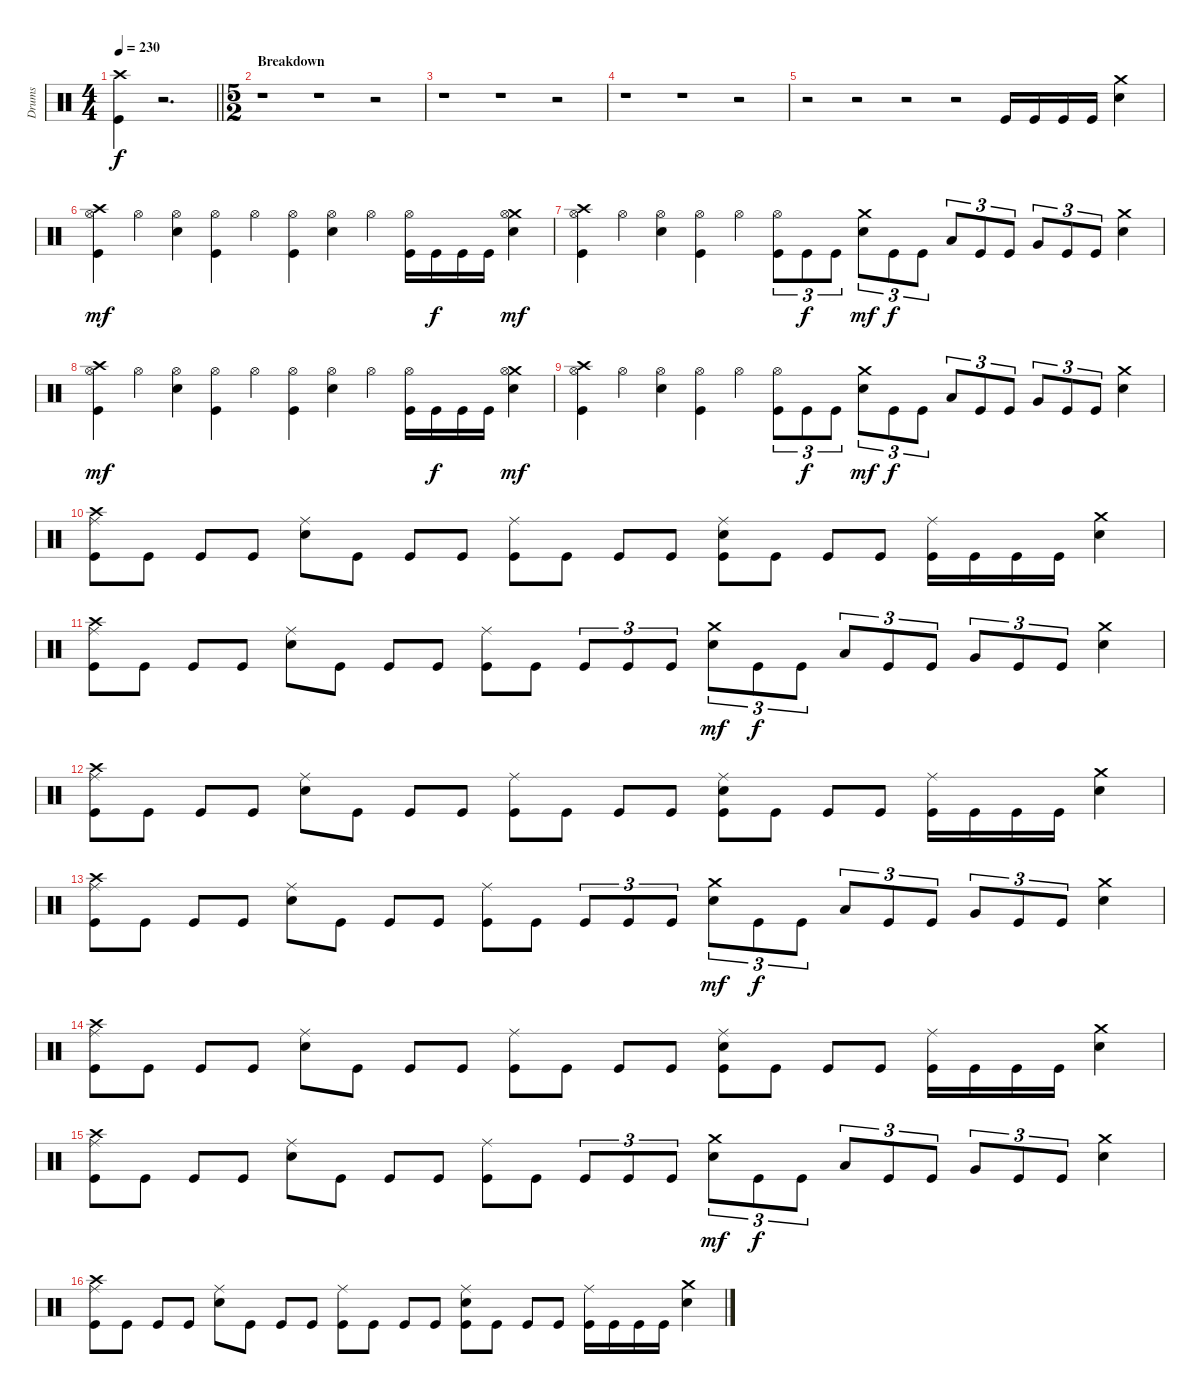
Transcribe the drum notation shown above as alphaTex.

\track ("Drums" "Drums") {instrument percussion}
\staff {score}
\articulation defaults
\ts (4 4)
\tempo 230
\clef neutral
\barLineRight lightlight
\ks c
("Crash high (hit)" "Kick (hit)").4{dy f} r.2{d} |
\ts (5 2)
\section ("" "Breakdown")
r.1 r.1 r.2 |
r.1 r.1 r.2 |
r.1 r.1 r.2 |
r.2 r.2 r.2 r.2 "Kick (hit)".16 "Kick (hit)".16 "Kick (hit)".16 "Kick (hit)".16 ("Crash medium (hit)" "Electric Snare (hit)").4 |
("Crash high (hit)" "Hi-Hat (open)" "Kick (hit)").4{dy mf} "Hi-Hat (open)".4 ("Hi-Hat (open)" "Electric Snare (hit)").4 ("Hi-Hat (open)" "Kick (hit)").4 "Hi-Hat (open)".4 ("Hi-Hat (open)" "Kick (hit)").4 ("Hi-Hat (open)" "Electric Snare (hit)").4 "Hi-Hat (open)".4 ("Hi-Hat (open)" "Kick (hit)").16 "Kick (hit)".16{dy f} "Kick (hit)".16 "Kick (hit)".16 ("Crash medium (hit)" "Hi-Hat (open)" "Electric Snare (hit)").4{dy mf} |
("Crash high (hit)" "Hi-Hat (open)" "Kick (hit)").4 "Hi-Hat (open)".4 ("Hi-Hat (open)" "Electric Snare (hit)").4 ("Hi-Hat (open)" "Kick (hit)").4 "Hi-Hat (open)".4 ("Hi-Hat (open)" "Kick (hit)").8{tu (3 2)} "Kick (hit)".8{tu (3 2) dy f} "Kick (hit)".8{tu (3 2)} ("Crash medium (hit)" "Electric Snare (hit)").8{tu (3 2) dy mf} "Kick (hit)".8{tu (3 2) dy f} "Kick (hit)".8{tu (3 2)} "Low Tom (hit)".8{tu (3 2)} "Kick (hit)".8{tu (3 2)} "Kick (hit)".8{tu (3 2)} "Very Low Tom (hit)".8{tu (3 2)} "Kick (hit)".8{tu (3 2)} "Kick (hit)".8{tu (3 2)} ("Crash medium (hit)" "Electric Snare (hit)").4 |
("Crash high (hit)" "Hi-Hat (open)" "Kick (hit)").4{dy mf} "Hi-Hat (open)".4 ("Hi-Hat (open)" "Electric Snare (hit)").4 ("Hi-Hat (open)" "Kick (hit)").4 "Hi-Hat (open)".4 ("Hi-Hat (open)" "Kick (hit)").4 ("Hi-Hat (open)" "Electric Snare (hit)").4 "Hi-Hat (open)".4 ("Hi-Hat (open)" "Kick (hit)").16 "Kick (hit)".16{dy f} "Kick (hit)".16 "Kick (hit)".16 ("Crash medium (hit)" "Hi-Hat (open)" "Electric Snare (hit)").4{dy mf} |
("Crash high (hit)" "Hi-Hat (open)" "Kick (hit)").4 "Hi-Hat (open)".4 ("Hi-Hat (open)" "Electric Snare (hit)").4 ("Hi-Hat (open)" "Kick (hit)").4 "Hi-Hat (open)".4 ("Hi-Hat (open)" "Kick (hit)").8{tu (3 2)} "Kick (hit)".8{tu (3 2) dy f} "Kick (hit)".8{tu (3 2)} ("Crash medium (hit)" "Electric Snare (hit)").8{tu (3 2) dy mf} "Kick (hit)".8{tu (3 2) dy f} "Kick (hit)".8{tu (3 2)} "Low Tom (hit)".8{tu (3 2)} "Kick (hit)".8{tu (3 2)} "Kick (hit)".8{tu (3 2)} "Very Low Tom (hit)".8{tu (3 2)} "Kick (hit)".8{tu (3 2)} "Kick (hit)".8{tu (3 2)} ("Crash medium (hit)" "Electric Snare (hit)").4 |
("Crash high (hit)" "Ride (middle)" "Kick (hit)").8 "Kick (hit)".8 "Kick (hit)".8 "Kick (hit)".8 ("Ride (middle)" "Electric Snare (hit)").8 "Kick (hit)".8 "Kick (hit)".8 "Kick (hit)".8 ("Ride (middle)" "Kick (hit)").8 "Kick (hit)".8 "Kick (hit)".8 "Kick (hit)".8 ("Ride (middle)" "Electric Snare (hit)" "Kick (hit)").8 "Kick (hit)".8 "Kick (hit)".8 "Kick (hit)".8 ("Ride (middle)" "Kick (hit)").16 "Kick (hit)".16 "Kick (hit)".16 "Kick (hit)".16 ("Crash medium (hit)" "Electric Snare (hit)").4 |
("Crash high (hit)" "Ride (middle)" "Kick (hit)").8 "Kick (hit)".8 "Kick (hit)".8 "Kick (hit)".8 ("Ride (middle)" "Electric Snare (hit)").8 "Kick (hit)".8 "Kick (hit)".8 "Kick (hit)".8 ("Ride (middle)" "Kick (hit)").8 "Kick (hit)".8 "Kick (hit)".8{tu (3 2)} "Kick (hit)".8{tu (3 2)} "Kick (hit)".8{tu (3 2)} ("Crash medium (hit)" "Electric Snare (hit)").8{tu (3 2) dy mf} "Kick (hit)".8{tu (3 2) dy f} "Kick (hit)".8{tu (3 2)} "Low Tom (hit)".8{tu (3 2)} "Kick (hit)".8{tu (3 2)} "Kick (hit)".8{tu (3 2)} "Very Low Tom (hit)".8{tu (3 2)} "Kick (hit)".8{tu (3 2)} "Kick (hit)".8{tu (3 2)} ("Crash medium (hit)" "Electric Snare (hit)").4 |
("Crash high (hit)" "Ride (middle)" "Kick (hit)").8 "Kick (hit)".8 "Kick (hit)".8 "Kick (hit)".8 ("Ride (middle)" "Electric Snare (hit)").8 "Kick (hit)".8 "Kick (hit)".8 "Kick (hit)".8 ("Ride (middle)" "Kick (hit)").8 "Kick (hit)".8 "Kick (hit)".8 "Kick (hit)".8 ("Ride (middle)" "Electric Snare (hit)" "Kick (hit)").8 "Kick (hit)".8 "Kick (hit)".8 "Kick (hit)".8 ("Ride (middle)" "Kick (hit)").16 "Kick (hit)".16 "Kick (hit)".16 "Kick (hit)".16 ("Crash medium (hit)" "Electric Snare (hit)").4 |
("Crash high (hit)" "Ride (middle)" "Kick (hit)").8 "Kick (hit)".8 "Kick (hit)".8 "Kick (hit)".8 ("Ride (middle)" "Electric Snare (hit)").8 "Kick (hit)".8 "Kick (hit)".8 "Kick (hit)".8 ("Ride (middle)" "Kick (hit)").8 "Kick (hit)".8 "Kick (hit)".8{tu (3 2)} "Kick (hit)".8{tu (3 2)} "Kick (hit)".8{tu (3 2)} ("Crash medium (hit)" "Electric Snare (hit)").8{tu (3 2) dy mf} "Kick (hit)".8{tu (3 2) dy f} "Kick (hit)".8{tu (3 2)} "Low Tom (hit)".8{tu (3 2)} "Kick (hit)".8{tu (3 2)} "Kick (hit)".8{tu (3 2)} "Very Low Tom (hit)".8{tu (3 2)} "Kick (hit)".8{tu (3 2)} "Kick (hit)".8{tu (3 2)} ("Crash medium (hit)" "Electric Snare (hit)").4 |
("Crash high (hit)" "Ride (middle)" "Kick (hit)").8 "Kick (hit)".8 "Kick (hit)".8 "Kick (hit)".8 ("Ride (middle)" "Electric Snare (hit)").8 "Kick (hit)".8 "Kick (hit)".8 "Kick (hit)".8 ("Ride (middle)" "Kick (hit)").8 "Kick (hit)".8 "Kick (hit)".8 "Kick (hit)".8 ("Ride (middle)" "Electric Snare (hit)" "Kick (hit)").8 "Kick (hit)".8 "Kick (hit)".8 "Kick (hit)".8 ("Ride (middle)" "Kick (hit)").16 "Kick (hit)".16 "Kick (hit)".16 "Kick (hit)".16 ("Crash medium (hit)" "Electric Snare (hit)").4 |
("Crash high (hit)" "Ride (middle)" "Kick (hit)").8 "Kick (hit)".8 "Kick (hit)".8 "Kick (hit)".8 ("Ride (middle)" "Electric Snare (hit)").8 "Kick (hit)".8 "Kick (hit)".8 "Kick (hit)".8 ("Ride (middle)" "Kick (hit)").8 "Kick (hit)".8 "Kick (hit)".8{tu (3 2)} "Kick (hit)".8{tu (3 2)} "Kick (hit)".8{tu (3 2)} ("Crash medium (hit)" "Electric Snare (hit)").8{tu (3 2) dy mf} "Kick (hit)".8{tu (3 2) dy f} "Kick (hit)".8{tu (3 2)} "Low Tom (hit)".8{tu (3 2)} "Kick (hit)".8{tu (3 2)} "Kick (hit)".8{tu (3 2)} "Very Low Tom (hit)".8{tu (3 2)} "Kick (hit)".8{tu (3 2)} "Kick (hit)".8{tu (3 2)} ("Crash medium (hit)" "Electric Snare (hit)").4 |
("Crash high (hit)" "Ride (middle)" "Kick (hit)").8 "Kick (hit)".8 "Kick (hit)".8 "Kick (hit)".8 ("Ride (middle)" "Electric Snare (hit)").8 "Kick (hit)".8 "Kick (hit)".8 "Kick (hit)".8 ("Ride (middle)" "Kick (hit)").8 "Kick (hit)".8 "Kick (hit)".8 "Kick (hit)".8 ("Ride (middle)" "Electric Snare (hit)" "Kick (hit)").8 "Kick (hit)".8 "Kick (hit)".8 "Kick (hit)".8 ("Ride (middle)" "Kick (hit)").16 "Kick (hit)".16 "Kick (hit)".16 "Kick (hit)".16 ("Crash medium (hit)" "Electric Snare (hit)").4
